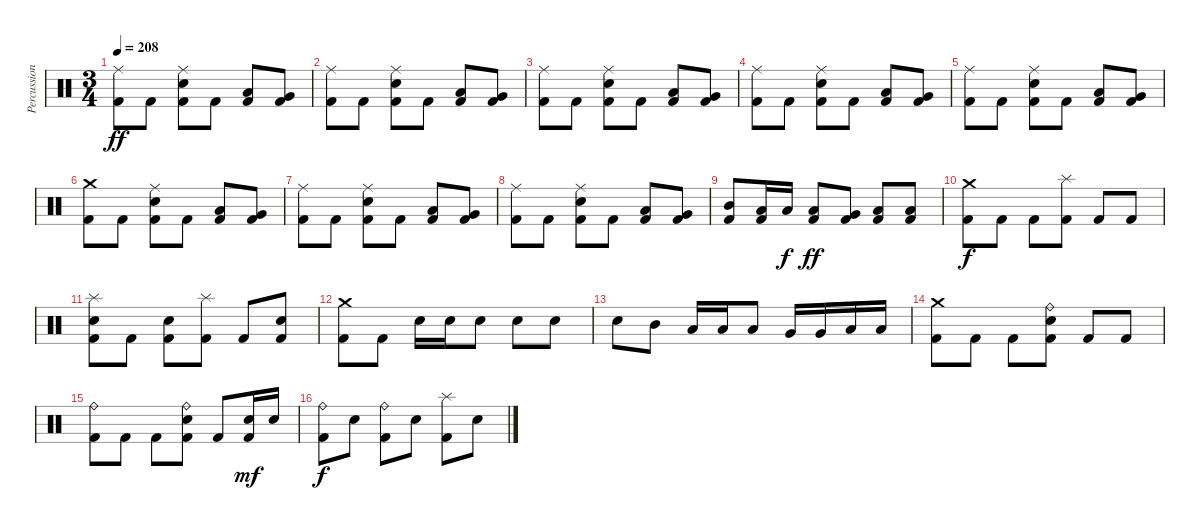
\track ("Percussion" "Percussion") {instrument percussion}
\staff {score}
\articulation defaults
\ts (3 4)
\tempo 208
\clef neutral
\ks c
("Ride (middle)" "Kick (hit) 2").8{dy ff} "Kick (hit) 2".8 ("Ride (middle)" "Electric Snare (hit)" "Kick (hit) 2").8 "Kick (hit) 2".8 ("Low Tom (hit)" "Kick (hit) 2").8 ("Very Low Tom (hit)" "Kick (hit) 2").8 |
("Ride (middle)" "Kick (hit) 2").8 "Kick (hit) 2".8 ("Ride (middle)" "Electric Snare (hit)" "Kick (hit) 2").8 "Kick (hit) 2".8 ("Low Tom (hit)" "Kick (hit) 2").8 ("Very Low Tom (hit)" "Kick (hit) 2").8 |
("Ride (middle)" "Kick (hit) 2").8 "Kick (hit) 2".8 ("Ride (middle)" "Electric Snare (hit)" "Kick (hit) 2").8 "Kick (hit) 2".8 ("Low Tom (hit)" "Kick (hit) 2").8 ("Very Low Tom (hit)" "Kick (hit) 2").8 |
("Ride (middle)" "Kick (hit) 2").8 "Kick (hit) 2".8 ("Ride (middle)" "Electric Snare (hit)" "Kick (hit) 2").8 "Kick (hit) 2".8 ("Low Tom (hit)" "Kick (hit) 2").8 ("Very Low Tom (hit)" "Kick (hit) 2").8 |
("Ride (middle)" "Kick (hit) 2").8 "Kick (hit) 2".8 ("Ride (middle)" "Electric Snare (hit)" "Kick (hit) 2").8 "Kick (hit) 2".8 ("Low Tom (hit)" "Kick (hit) 2").8 ("Very Low Tom (hit)" "Kick (hit) 2").8 |
("Crash medium (hit)" "Kick (hit) 2").8 "Kick (hit) 2".8 ("Ride (middle)" "Electric Snare (hit)" "Kick (hit) 2").8 "Kick (hit) 2".8 ("Low Tom (hit)" "Kick (hit) 2").8 ("Very Low Tom (hit)" "Kick (hit) 2").8 |
("Ride (middle)" "Kick (hit) 2").8 "Kick (hit) 2".8 ("Ride (middle)" "Electric Snare (hit)" "Kick (hit) 2").8 "Kick (hit) 2".8 ("Low Tom (hit)" "Kick (hit) 2").8 ("Very Low Tom (hit)" "Kick (hit) 2").8 |
("Ride (middle)" "Kick (hit) 2").8 "Kick (hit) 2".8 ("Ride (middle)" "Electric Snare (hit)" "Kick (hit) 2").8 "Kick (hit) 2".8 ("Low Tom (hit)" "Kick (hit) 2").8 ("Very Low Tom (hit)" "Kick (hit) 2").8 |
("Mid Tom (hit)" "Kick (hit) 2").8 ("Low Tom (hit)" "Kick (hit) 2").16 "Low Tom (hit)".16{dy f} ("Low Tom (hit)" "Kick (hit) 2").8{dy ff} ("Very Low Tom (hit)" "Kick (hit) 2").8 ("Low Floor Tom (hit)" "Kick (hit) 2").8 ("Low Floor Tom (hit)" "Kick (hit) 2").8 |
("Crash medium (hit)" "Kick (hit) 2").8{dy f} "Kick (hit) 2".8 "Kick (hit) 2".8 ("Splash (hit)" "Kick (hit) 2").8 "Kick (hit) 2".8 "Kick (hit) 2".8 |
("Splash (hit)" "Electric Snare (hit)" "Kick (hit) 2").8 "Kick (hit) 2".8 ("Electric Snare (hit)" "Kick (hit) 2").8 ("Splash (hit)" "Kick (hit) 2").8 "Kick (hit) 2".8 ("Electric Snare (hit)" "Kick (hit) 2").8 |
("Crash medium (hit)" "Kick (hit) 2").8 "Kick (hit) 2".8 "Electric Snare (hit)".16 "Electric Snare (hit)".16 "Electric Snare (hit)".8 "Electric Snare (hit)".8 "Electric Snare (hit)".8 |
"Electric Snare (hit)".8 "Mid Tom (hit)".8 "Low Tom (hit)".16 "Low Tom (hit)".16 "Low Tom (hit)".8 "Very Low Tom (hit)".16 "Very Low Tom (hit)".16 "Low Floor Tom (hit)".16 "Low Floor Tom (hit)".16 |
("Crash medium (hit)" "Kick (hit) 2").8 "Kick (hit) 2".8 "Kick (hit) 2".8 ("Ride (bell)" "Electric Snare (hit)" "Kick (hit) 2").8 "Kick (hit) 2".8 "Kick (hit) 2".8 |
("Ride (bell)" "Kick (hit) 2").8 "Kick (hit) 2".8 "Kick (hit) 2".8 ("Ride (bell)" "Electric Snare (hit)" "Kick (hit) 2").8 "Kick (hit) 2".8 ("Electric Snare (hit)" "Kick (hit) 2").16{dy mf} "Electric Snare (hit)".16 |
("Ride (bell)" "Kick (hit) 2").8{dy f} "Electric Snare (hit)".8 ("Ride (bell)" "Kick (hit) 2").8 "Electric Snare (hit)".8 ("Splash (hit)" "Kick (hit) 2").8 "Electric Snare (hit)".8
